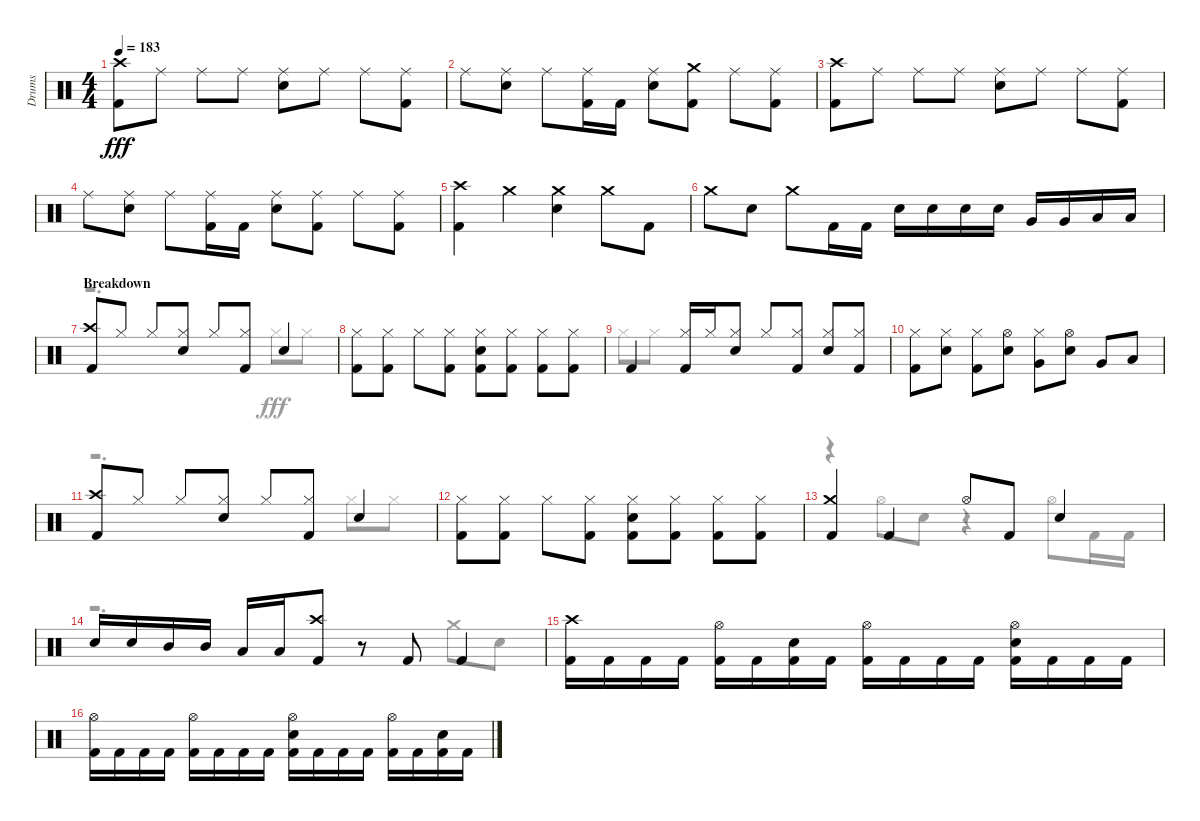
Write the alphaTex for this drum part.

\track ("Drums" "Drums") {instrument percussion}
\staff {score}
\articulation defaults
\voice
\ts (4 4)
\tempo 183
\clef neutral
\ks aminor
("Kick (hit) 2" "Crash high (hit)").8{dy fff} "Ride (middle)".8 "Ride (middle)".8 "Ride (middle)".8 ("Ride (middle)" "Snare (hit) 2").8 "Ride (middle)".8 "Ride (middle)".8 ("Kick (hit) 2" "Ride (middle)").8 |
"Ride (middle)".8 ("Ride (middle)" "Snare (hit) 2").8 "Ride (middle)".8 ("Ride (middle)" "Kick (hit) 2").16 "Kick (hit) 2".16 ("Ride (middle)" "Snare (hit) 2").8 ("Crash medium (hit)" "Kick (hit) 2").8 "Ride (middle)".8 ("Kick (hit) 2" "Ride (middle)").8 |
("Kick (hit) 2" "Crash high (hit)").8 "Ride (middle)".8 "Ride (middle)".8 "Ride (middle)".8 ("Snare (hit) 2" "Ride (middle)").8 "Ride (middle)".8 "Ride (middle)".8 ("Kick (hit) 2" "Ride (middle)").8 |
"Ride (middle)".8 ("Snare (hit) 2" "Ride (middle)").8 "Ride (middle)".8 ("Ride (middle)" "Kick (hit) 2").16 "Kick (hit) 2".16 ("Ride (middle)" "Snare (hit) 2").8 ("Kick (hit) 2" "Ride (middle)").8 "Ride (middle)".8 ("Ride (middle)" "Kick (hit) 2").8 |
("Crash high (hit)" "Kick (hit) 2").4 "Crash medium (hit)".4 ("Crash medium (hit)" "Snare (hit) 2").4 "Crash medium (hit)".8 "Kick (hit) 2".8 |
"Crash medium (hit)".8 "Snare (hit) 2".8 "Crash medium (hit)".8 "Kick (hit) 2".16 "Kick (hit) 2".16 "Snare (hit) 2".16 "Snare (hit) 2".16 "Snare (hit) 2".16 "Snare (hit) 2".16 "Very Low Tom (hit)".16 "Very Low Tom (hit)".16 "Low Floor Tom (hit)".16 "Low Floor Tom (hit)".16 |
\section ("" "Breakdown")
("Crash high (hit)" "Kick (hit) 2").8 "Hi-Hat (closed)".8 "Hi-Hat (closed)".8 ("Hi-Hat (closed)" "Snare (hit) 2").8 "Hi-Hat (closed)".8 ("Kick (hit) 2" "Hi-Hat (closed)").8 "Snare (hit) 2".4 |
("Hi-Hat (closed)" "Kick (hit) 2").8 ("Kick (hit) 2" "Hi-Hat (closed)").8 "Hi-Hat (closed)".8 ("Kick (hit) 2" "Hi-Hat (closed)").8 ("Hi-Hat (closed)" "Kick (hit) 2" "Snare (hit) 2").8 ("Kick (hit) 2" "Hi-Hat (closed)").8 ("Hi-Hat (closed)" "Kick (hit) 2").8 ("Kick (hit) 2" "Hi-Hat (closed)").8 |
"Kick (hit) 2".4 ("Hi-Hat (closed)" "Kick (hit) 2").16 "Hi-Hat (closed)".16 ("Hi-Hat (closed)" "Snare (hit) 2").8 "Hi-Hat (closed)".8 ("Hi-Hat (closed)" "Kick (hit) 2").8 ("Hi-Hat (closed)" "Snare (hit) 2").8 ("Hi-Hat (closed)" "Kick (hit) 2").8 |
("Hi-Hat (closed)" "Kick (hit) 2").8 ("Snare (hit) 2" "Hi-Hat (closed)").8 ("Hi-Hat (closed)" "Kick (hit) 2").8 ("Hi-Hat (open)" "Snare (hit) 2").8 ("Hi-Hat (closed)" "Very Low Tom (hit)").8 ("Snare (hit) 2" "Hi-Hat (open)").8 "Very Low Tom (hit)".8 "Low Floor Tom (hit)".8 |
("Kick (hit) 2" "Crash high (hit)").8 "Hi-Hat (closed)".8 "Hi-Hat (closed)".8 ("Hi-Hat (closed)" "Snare (hit) 2").8 "Hi-Hat (closed)".8 ("Kick (hit) 2" "Hi-Hat (closed)").8 "Snare (hit) 2".4 |
("Kick (hit) 2" "Hi-Hat (closed)").8 ("Kick (hit) 2" "Hi-Hat (closed)").8 "Hi-Hat (closed)".8 ("Kick (hit) 2" "Hi-Hat (closed)").8 ("Snare (hit) 2" "Hi-Hat (closed)" "Kick (hit) 2").8 ("Kick (hit) 2" "Hi-Hat (closed)").8 ("Kick (hit) 2" "Hi-Hat (closed)").8 ("Hi-Hat (closed)" "Kick (hit) 2").8 |
("Crash medium (hit)" "Kick (hit) 2").4 "Kick (hit) 2".4 "Hi-Hat (open)".8 "Kick (hit) 2".8 "Snare (hit) 2".4 |
"Snare (hit) 2".16 "Snare (hit) 2".16 "Mid Tom (hit)".16 "Mid Tom (hit)".16 "Low Tom (hit)".16 "Low Tom (hit)".16 ("Kick (hit) 2" "Crash high (hit)").8 r.8 "Kick (hit) 2".8 "Kick (hit) 2".4 |
("Crash high (hit)" "Kick (hit) 2").16 "Kick (hit) 2".16 "Kick (hit) 2".16 "Kick (hit) 2".16 ("Hi-Hat (open)" "Kick (hit) 2").16 "Kick (hit) 2".16 ("Snare (hit) 2" "Kick (hit) 2").16 "Kick (hit) 2".16 ("Hi-Hat (open)" "Kick (hit) 2").16 "Kick (hit) 2".16 "Kick (hit) 2".16 "Kick (hit) 2".16 ("Kick (hit) 2" "Snare (hit) 2" "Hi-Hat (open)").16 "Kick (hit) 2".16 "Kick (hit) 2".16 "Kick (hit) 2".16 |
("Hi-Hat (open)" "Kick (hit) 2").16 "Kick (hit) 2".16 "Kick (hit) 2".16 "Kick (hit) 2".16 ("Hi-Hat (open)" "Kick (hit) 2").16 "Kick (hit) 2".16 "Kick (hit) 2".16 "Kick (hit) 2".16 ("Hi-Hat (open)" "Snare (hit) 2" "Kick (hit) 2").16 "Kick (hit) 2".16 "Kick (hit) 2".16 "Kick (hit) 2".16 ("Hi-Hat (open)" "Kick (hit) 2").16 "Kick (hit) 2".16 ("Kick (hit) 2" "Snare (hit) 2").16 "Kick (hit) 2".16
\voice
\clef neutral
\ottava regular
\simile none
\ks aminor
|
|
|
|
|
|
r.2{d} "Hi-Hat (closed)".8 "Hi-Hat (closed)".8 |
|
"Hi-Hat (closed)".8 "Hi-Hat (closed)".8 |
|
r.2{d} "Hi-Hat (closed)".8 "Hi-Hat (closed)".8 |
|
r.4 "Hi-Hat (open)".8 "Snare (hit) 2".8 r.4 "Hi-Hat (open)".8 "Kick (hit) 2".16 "Kick (hit) 2".16 |
r.2{d} "Crash medium (hit)".8 "Snare (hit) 2".8 |
|
